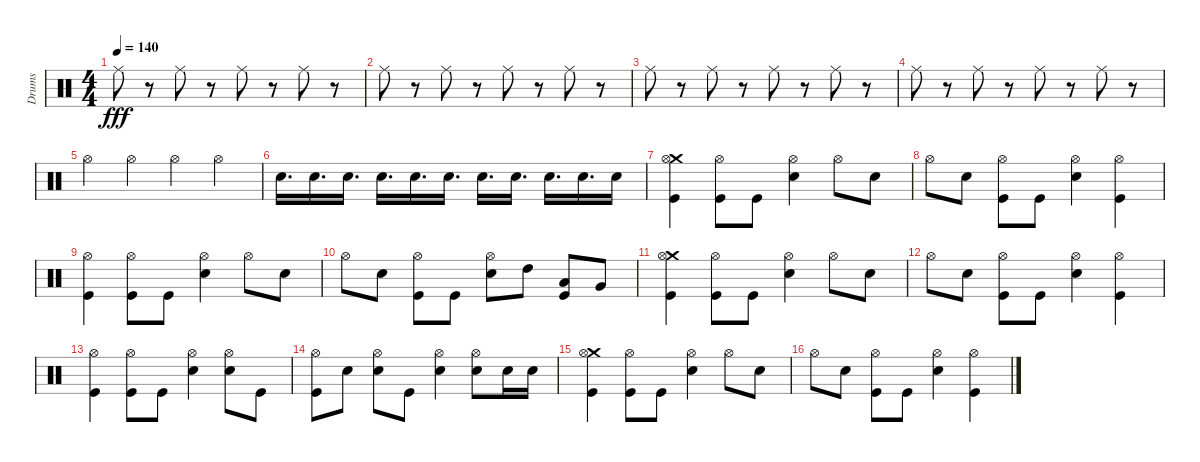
\track ("Drums" "Drums") {instrument percussion}
\staff {score}
\articulation defaults
\ts (4 4)
\tempo 140
\clef neutral
\ks c "Ride (middle)".8{dy fff}
r.8 "Ride (middle)".8 r.8 "Ride (middle)".8 r.8 "Ride (middle)".8 r.8 |
"Ride (middle)".8 r.8 "Ride (middle)".8 r.8 "Ride (middle)".8 r.8 "Ride (middle)".8 r.8 |
"Ride (middle)".8 r.8 "Ride (middle)".8 r.8 "Ride (middle)".8 r.8 "Ride (middle)".8 r.8 |
"Ride (middle)".8 r.8 "Ride (middle)".8 r.8 "Ride (middle)".8 r.8 "Ride (middle)".8 r.8 |
"Hi-Hat (open)".4 "Hi-Hat (open)".4 "Hi-Hat (open)".4 "Hi-Hat (open)".4 |
"Electric Snare (hit)".16{d} "Electric Snare (hit)".16{d} "Electric Snare (hit)".16{d} "Electric Snare (hit)".16{d} "Electric Snare (hit)".16{d} "Electric Snare (hit)".16{d} "Electric Snare (hit)".16{d} "Electric Snare (hit)".16{d} "Electric Snare (hit)".16{d} "Electric Snare (hit)".16{d} "Electric Snare (hit)".16 |
("Crash medium (hit)" "Hi-Hat (open)" "Kick (hit)").4 ("Hi-Hat (open)" "Kick (hit)").8 "Kick (hit)".8 ("Hi-Hat (open)" "Electric Snare (hit)").4 "Hi-Hat (open)".8 "Electric Snare (hit)".8 |
"Hi-Hat (open)".8 "Electric Snare (hit)".8 ("Hi-Hat (open)" "Kick (hit)").8 "Kick (hit)".8 ("Hi-Hat (open)" "Electric Snare (hit)").4 ("Hi-Hat (open)" "Kick (hit)").4 |
("Hi-Hat (open)" "Kick (hit)").4 ("Hi-Hat (open)" "Kick (hit)").8 "Kick (hit)".8 ("Hi-Hat (open)" "Electric Snare (hit)").4 "Hi-Hat (open)".8 "Electric Snare (hit)".8 |
"Hi-Hat (open)".8 "Electric Snare (hit)".8 ("Hi-Hat (open)" "Kick (hit)").8 "Kick (hit)".8 ("Hi-Hat (open)" "Electric Snare (hit)").8 "High Tom (hit)".8 ("Low Tom (hit)" "Kick (hit)").8 "Very Low Tom (hit)".8 |
("Crash medium (hit)" "Hi-Hat (open)" "Kick (hit)").4 ("Hi-Hat (open)" "Kick (hit)").8 "Kick (hit)".8 ("Hi-Hat (open)" "Electric Snare (hit)").4 "Hi-Hat (open)".8 "Electric Snare (hit)".8 |
"Hi-Hat (open)".8 "Electric Snare (hit)".8 ("Hi-Hat (open)" "Kick (hit)").8 "Kick (hit)".8 ("Hi-Hat (open)" "Electric Snare (hit)").4 ("Hi-Hat (open)" "Kick (hit)").4 |
("Hi-Hat (open)" "Kick (hit)").4 ("Hi-Hat (open)" "Kick (hit)").8 "Kick (hit)".8 ("Hi-Hat (open)" "Electric Snare (hit)").4 ("Hi-Hat (open)" "Electric Snare (hit)").8 "Kick (hit)".8 |
("Hi-Hat (open)" "Kick (hit)").8 "Electric Snare (hit)".8 ("Hi-Hat (open)" "Electric Snare (hit)").8 "Kick (hit)".8 ("Hi-Hat (open)" "Electric Snare (hit)").4 ("Hi-Hat (open)" "Electric Snare (hit)").8 "Electric Snare (hit)".16 "Electric Snare (hit)".16 |
("Crash medium (hit)" "Hi-Hat (open)" "Kick (hit)").4 ("Hi-Hat (open)" "Kick (hit)").8 "Kick (hit)".8 ("Hi-Hat (open)" "Electric Snare (hit)").4 "Hi-Hat (open)".8 "Electric Snare (hit)".8 |
"Hi-Hat (open)".8 "Electric Snare (hit)".8 ("Hi-Hat (open)" "Kick (hit)").8 "Kick (hit)".8 ("Hi-Hat (open)" "Electric Snare (hit)").4 ("Hi-Hat (open)" "Kick (hit)").4
